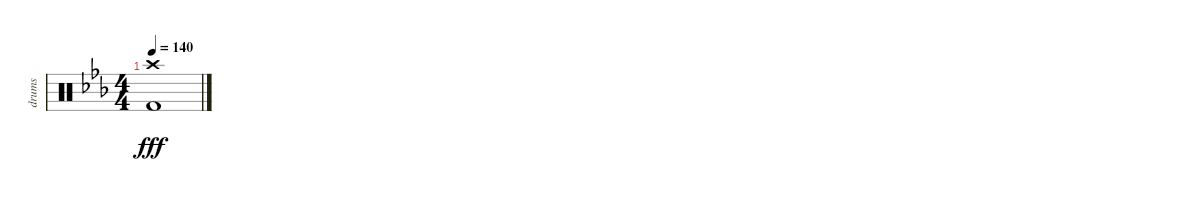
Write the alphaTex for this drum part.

\track ("drums" "drums") {instrument percussion}
\staff {score}
\articulation defaults
\ts (4 4)
\tempo 140
\clef neutral
\ks cminor
("Crash high (hit)" "Kick (hit) 2").1{dy fff}
